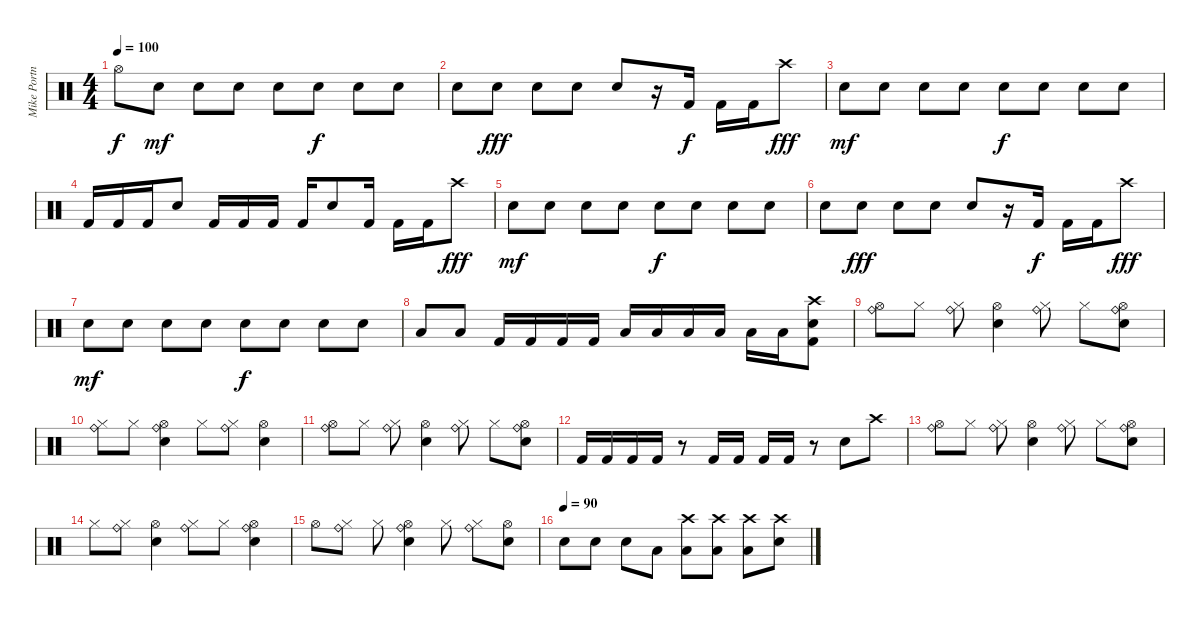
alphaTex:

\track ("Mike Portnoy" "Mike Portn") {instrument percussion}
\staff {score}
\articulation defaults
\ts (4 4)
\tempo 100
\clef neutral
\ks c "Hi-Hat (open)".8{dy f} "Electric Snare (hit)".8{dy mf} "Electric Snare (hit)".8 "Electric Snare (hit)".8 "Electric Snare (hit)".8 "Electric Snare (hit)".8{dy f} "Electric Snare (hit)".8 "Electric Snare (hit)".8
|
"Electric Snare (hit)".8 "Electric Snare (hit)".8{dy fff} "Electric Snare (hit)".8 "Electric Snare (hit)".8 "Electric Snare (hit)".8 r.16 "Kick (hit) 2".16{dy f} "Kick (hit) 2".16 "Kick (hit) 2".16 "Crash high (hit)".8{dy fff} |
"Electric Snare (hit)".8{dy mf} "Electric Snare (hit)".8 "Electric Snare (hit)".8 "Electric Snare (hit)".8 "Electric Snare (hit)".8{dy f} "Electric Snare (hit)".8 "Electric Snare (hit)".8 "Electric Snare (hit)".8 |
"Kick (hit) 2".16 "Kick (hit) 2".16 "Kick (hit) 2".16 "Electric Snare (hit)".8 "Kick (hit) 2".16 "Kick (hit) 2".16 "Kick (hit) 2".16 "Kick (hit) 2".16 "Electric Snare (hit)".8 "Kick (hit) 2".16 "Kick (hit) 2".16 "Kick (hit) 2".16 "Crash high (hit)".8{dy fff} |
"Electric Snare (hit)".8{dy mf} "Electric Snare (hit)".8 "Electric Snare (hit)".8 "Electric Snare (hit)".8 "Electric Snare (hit)".8{dy f} "Electric Snare (hit)".8 "Electric Snare (hit)".8 "Electric Snare (hit)".8 |
"Electric Snare (hit)".8 "Electric Snare (hit)".8{dy fff} "Electric Snare (hit)".8 "Electric Snare (hit)".8 "Electric Snare (hit)".8 r.16 "Kick (hit) 2".16{dy f} "Kick (hit) 2".16 "Kick (hit) 2".16 "Crash high (hit)".8{dy fff} |
"Electric Snare (hit)".8{dy mf} "Electric Snare (hit)".8 "Electric Snare (hit)".8 "Electric Snare (hit)".8 "Electric Snare (hit)".8{dy f} "Electric Snare (hit)".8 "Electric Snare (hit)".8 "Electric Snare (hit)".8 |
"Low Tom (hit)".8 "Low Floor Tom (hit)".8 "Kick (hit) 2".16 "Kick (hit) 2".16 "Kick (hit) 2".16 "Kick (hit) 2".16 "Low Floor Tom (hit)".16 "Low Floor Tom (hit)".16 "Low Tom (hit)".16 "Low Tom (hit)".16 "Low Tom (hit)".16 "Low Tom (hit)".16 ("Crash high (hit)" "Electric Snare (hit)" "Kick (hit) 2").8 |
("Ride (bell)" "Hi-Hat (open)").8 "Hi-Hat (closed)".8 ("Ride (bell)" "Hi-Hat (closed)").8 ("Hi-Hat (open)" "Electric Snare (hit)").4 ("Ride (bell)" "Hi-Hat (closed)").8 "Hi-Hat (closed)".8 ("Ride (bell)" "Hi-Hat (open)" "Electric Snare (hit)").8 |
("Ride (bell)" "Hi-Hat (closed)").8 "Hi-Hat (closed)".8 ("Ride (bell)" "Hi-Hat (open)" "Electric Snare (hit)").4 "Hi-Hat (closed)".8 ("Ride (bell)" "Hi-Hat (closed)").8 ("Hi-Hat (open)" "Electric Snare (hit)").4 |
("Ride (bell)" "Hi-Hat (open)").8 "Hi-Hat (closed)".8 ("Ride (bell)" "Hi-Hat (closed)").8 ("Hi-Hat (open)" "Electric Snare (hit)").4 ("Ride (bell)" "Hi-Hat (closed)").8 "Hi-Hat (closed)".8 ("Ride (bell)" "Hi-Hat (open)" "Electric Snare (hit)").8 |
"Kick (hit) 2".16 "Kick (hit) 2".16 "Kick (hit) 2".16 "Kick (hit) 2".16 r.8 "Kick (hit) 2".16 "Kick (hit) 2".16 "Kick (hit) 2".16 "Kick (hit) 2".16 r.8 "Electric Snare (hit)".8 "Crash high (hit)".8 |
("Ride (bell)" "Hi-Hat (open)").8 "Hi-Hat (closed)".8 ("Ride (bell)" "Hi-Hat (closed)").8 ("Hi-Hat (open)" "Electric Snare (hit)").4 ("Ride (bell)" "Hi-Hat (closed)").8 "Hi-Hat (closed)".8 ("Ride (bell)" "Hi-Hat (open)" "Electric Snare (hit)").8 |
"Hi-Hat (closed)".8 ("Ride (bell)" "Hi-Hat (closed)").8 ("Hi-Hat (open)" "Electric Snare (hit)").4 ("Ride (bell)" "Hi-Hat (closed)").8 "Hi-Hat (closed)".8 ("Ride (bell)" "Hi-Hat (open)" "Electric Snare (hit)").4 |
"Hi-Hat (open)".8 ("Ride (bell)" "Hi-Hat (closed)").8 "Hi-Hat (closed)".8 ("Ride (bell)" "Hi-Hat (open)" "Electric Snare (hit)").4 "Hi-Hat (closed)".8 ("Ride (bell)" "Hi-Hat (closed)").8 ("Hi-Hat (open)" "Electric Snare (hit)").8 |
\tempo (90)
"Electric Snare (hit)".8 "Electric Snare (hit)".8 "Electric Snare (hit)".8 "Low Tom (hit)".8 ("Crash high (hit)" "Low Floor Tom (hit)").8 ("Crash high (hit)" "Low Floor Tom (hit)").8 ("Crash high (hit)" "Low Floor Tom (hit)").8 ("Crash high (hit)" "Electric Snare (hit)").8
